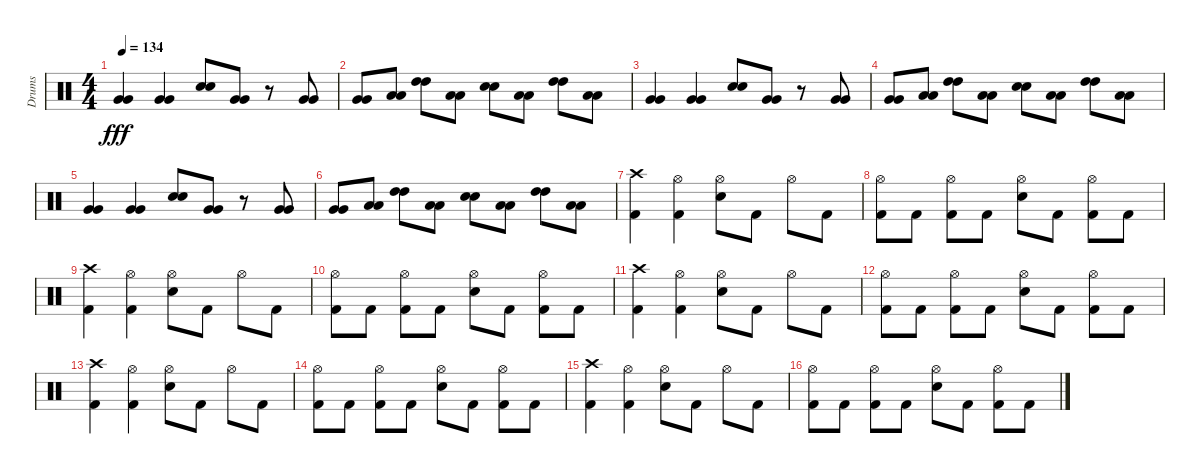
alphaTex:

\track ("Drums" "Drums") {instrument percussion}
\staff {score}
\articulation defaults
\ts (4 4)
\tempo 134
\clef neutral
\ks c
("Very Low Tom (hit)" "Very Low Tom (hit)").4{dy fff} ("Very Low Tom (hit)" "Very Low Tom (hit)").4 ("Electric Snare (hit)" "Electric Snare (hit)").8 ("Very Low Tom (hit)" "Very Low Tom (hit)").8 r.8 ("Very Low Tom (hit)" "Very Low Tom (hit)").8 |
("Very Low Tom (hit)" "Very Low Tom (hit)").8 ("Low Tom (hit)" "Low Tom (hit)").8 ("High Tom (hit)" "High Tom (hit)").8 ("Low Tom (hit)" "Low Tom (hit)").8 ("Electric Snare (hit)" "Electric Snare (hit)").8 ("Low Tom (hit)" "Low Tom (hit)").8 ("High Tom (hit)" "High Tom (hit)").8 ("Low Tom (hit)" "Low Tom (hit)").8 |
("Very Low Tom (hit)" "Very Low Tom (hit)").4 ("Very Low Tom (hit)" "Very Low Tom (hit)").4 ("Electric Snare (hit)" "Electric Snare (hit)").8 ("Very Low Tom (hit)" "Very Low Tom (hit)").8 r.8 ("Very Low Tom (hit)" "Very Low Tom (hit)").8 |
("Very Low Tom (hit)" "Very Low Tom (hit)").8 ("Low Tom (hit)" "Low Tom (hit)").8 ("High Tom (hit)" "High Tom (hit)").8 ("Low Tom (hit)" "Low Tom (hit)").8 ("Electric Snare (hit)" "Electric Snare (hit)").8 ("Low Tom (hit)" "Low Tom (hit)").8 ("High Tom (hit)" "High Tom (hit)").8 ("Low Tom (hit)" "Low Tom (hit)").8 |
("Very Low Tom (hit)" "Very Low Tom (hit)").4 ("Very Low Tom (hit)" "Very Low Tom (hit)").4 ("Electric Snare (hit)" "Electric Snare (hit)").8 ("Very Low Tom (hit)" "Very Low Tom (hit)").8 r.8 ("Very Low Tom (hit)" "Very Low Tom (hit)").8 |
("Very Low Tom (hit)" "Very Low Tom (hit)").8 ("Low Tom (hit)" "Low Tom (hit)").8 ("High Tom (hit)" "High Tom (hit)").8 ("Low Tom (hit)" "Low Tom (hit)").8 ("Electric Snare (hit)" "Electric Snare (hit)").8 ("Low Tom (hit)" "Low Tom (hit)").8 ("High Tom (hit)" "High Tom (hit)").8 ("Low Tom (hit)" "Low Tom (hit)").8 |
("Crash high (hit)" "Kick (hit) 2").4 ("Hi-Hat (open)" "Kick (hit) 2").4 ("Hi-Hat (open)" "Electric Snare (hit)").8 "Kick (hit) 2".8 "Hi-Hat (open)".8 "Kick (hit) 2".8 |
("Hi-Hat (open)" "Kick (hit) 2").8 "Kick (hit) 2".8 ("Hi-Hat (open)" "Kick (hit) 2").8 "Kick (hit) 2".8 ("Hi-Hat (open)" "Electric Snare (hit)").8 "Kick (hit) 2".8 ("Hi-Hat (open)" "Kick (hit) 2").8 "Kick (hit) 2".8 |
("Crash high (hit)" "Kick (hit) 2").4 ("Hi-Hat (open)" "Kick (hit) 2").4 ("Hi-Hat (open)" "Electric Snare (hit)").8 "Kick (hit) 2".8 "Hi-Hat (open)".8 "Kick (hit) 2".8 |
("Hi-Hat (open)" "Kick (hit) 2").8 "Kick (hit) 2".8 ("Hi-Hat (open)" "Kick (hit) 2").8 "Kick (hit) 2".8 ("Hi-Hat (open)" "Electric Snare (hit)").8 "Kick (hit) 2".8 ("Hi-Hat (open)" "Kick (hit) 2").8 "Kick (hit) 2".8 |
("Crash high (hit)" "Kick (hit) 2").4 ("Hi-Hat (open)" "Kick (hit) 2").4 ("Hi-Hat (open)" "Electric Snare (hit)").8 "Kick (hit) 2".8 "Hi-Hat (open)".8 "Kick (hit) 2".8 |
("Hi-Hat (open)" "Kick (hit) 2").8 "Kick (hit) 2".8 ("Hi-Hat (open)" "Kick (hit) 2").8 "Kick (hit) 2".8 ("Hi-Hat (open)" "Electric Snare (hit)").8 "Kick (hit) 2".8 ("Hi-Hat (open)" "Kick (hit) 2").8 "Kick (hit) 2".8 |
("Crash high (hit)" "Kick (hit) 2").4 ("Hi-Hat (open)" "Kick (hit) 2").4 ("Hi-Hat (open)" "Electric Snare (hit)").8 "Kick (hit) 2".8 "Hi-Hat (open)".8 "Kick (hit) 2".8 |
("Hi-Hat (open)" "Kick (hit) 2").8 "Kick (hit) 2".8 ("Hi-Hat (open)" "Kick (hit) 2").8 "Kick (hit) 2".8 ("Hi-Hat (open)" "Electric Snare (hit)").8 "Kick (hit) 2".8 ("Hi-Hat (open)" "Kick (hit) 2").8 "Kick (hit) 2".8 |
("Crash high (hit)" "Kick (hit) 2").4 ("Hi-Hat (open)" "Kick (hit) 2").4 ("Hi-Hat (open)" "Electric Snare (hit)").8 "Kick (hit) 2".8 "Hi-Hat (open)".8 "Kick (hit) 2".8 |
("Hi-Hat (open)" "Kick (hit) 2").8 "Kick (hit) 2".8 ("Hi-Hat (open)" "Kick (hit) 2").8 "Kick (hit) 2".8 ("Hi-Hat (open)" "Electric Snare (hit)").8 "Kick (hit) 2".8 ("Hi-Hat (open)" "Kick (hit) 2").8 "Kick (hit) 2".8
